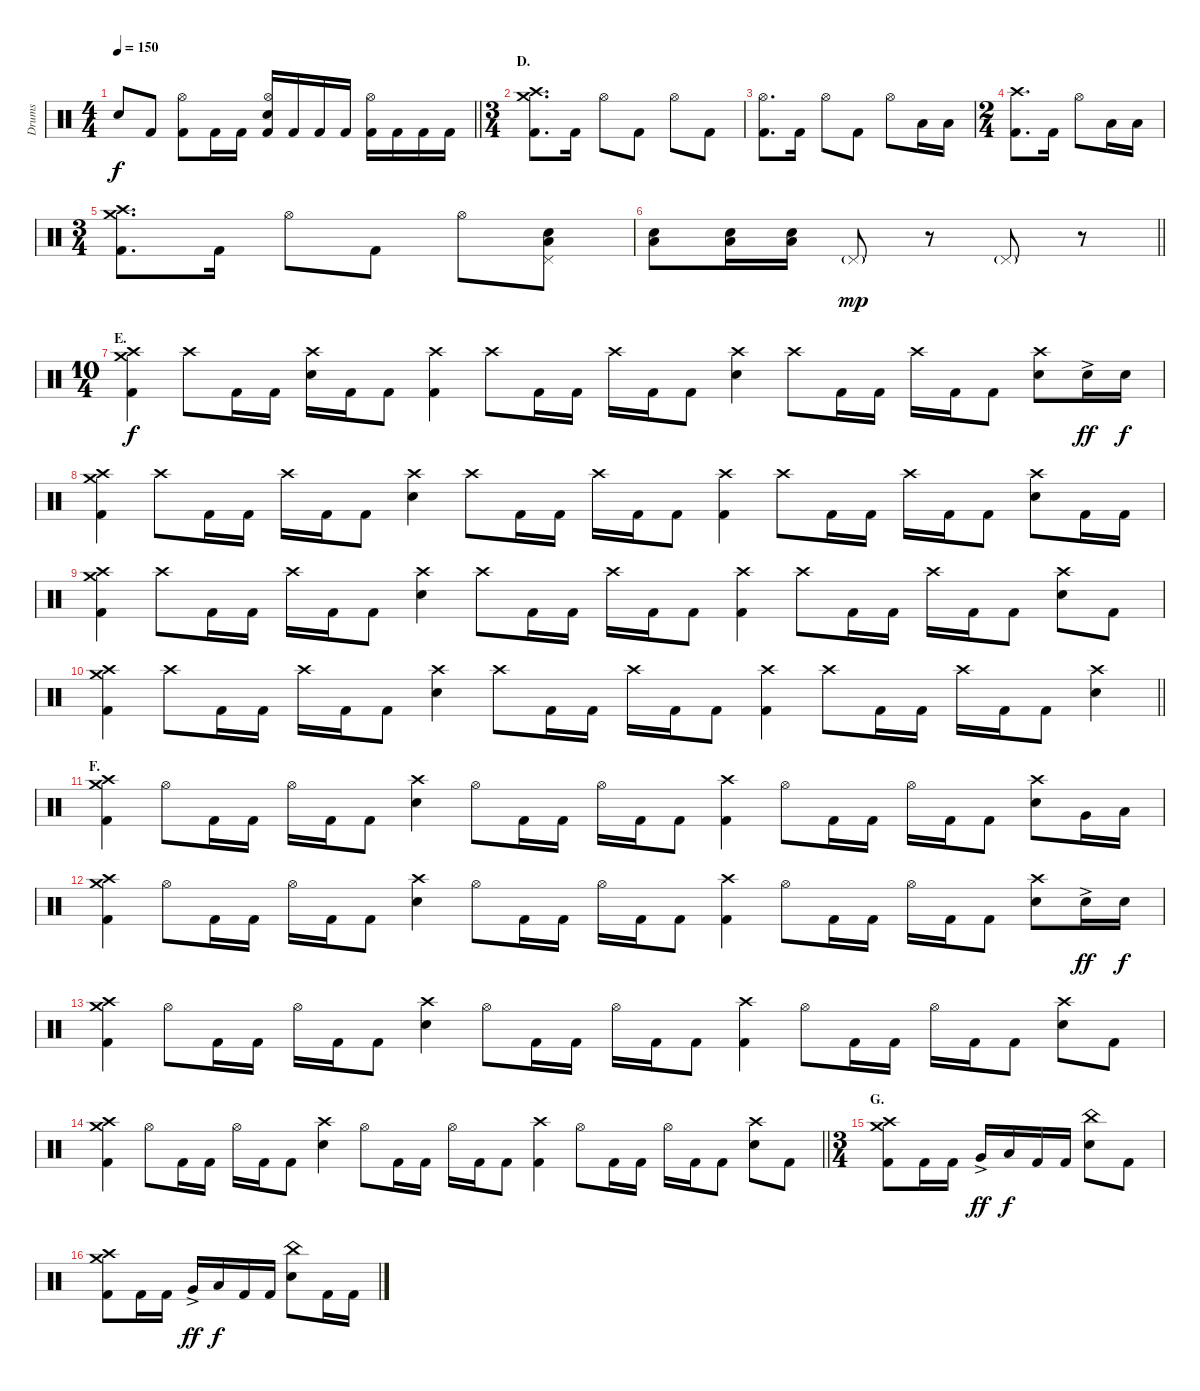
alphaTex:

\track ("Drums" "Drums") {instrument percussion}
\staff {score}
\articulation defaults
\ts (4 4)
\tempo 150
\clef neutral
\barLineRight lightlight
\ks c "Snare (hit)"{t}.8{dy f} "Kick (hit) 2".8
("Hi-Hat (open)" "Kick (hit) 2").8 "Kick (hit) 2".16 "Kick (hit) 2".16 ("Hi-Hat (open)" "Electric Snare (hit)" "Kick (hit) 2").16 "Kick (hit) 2".16 "Kick (hit) 2".16 "Kick (hit) 2".16 ("Hi-Hat (open)" "Kick (hit) 2").16 "Kick (hit) 2".16 "Kick (hit) 2".16 "Kick (hit) 2".16 |
\ts (3 4)
\section ("" "D.")
("Crash medium (hit)" "Crash high (hit)" "Kick (hit) 2").8{d} "Kick (hit) 2".16 "Hi-Hat (open)".8 "Kick (hit) 2".8 "Hi-Hat (open)".8 "Kick (hit) 2".8 |
("Hi-Hat (open)" "Kick (hit) 2").8{d} "Kick (hit) 2".16 "Hi-Hat (open)".8 "Kick (hit) 2".8 "Hi-Hat (open)".8 "Low Floor Tom (hit)".16 "Low Floor Tom (hit)".16 |
\ts (2 4)
("Crash high (hit)" "Kick (hit) 2").8{d} "Kick (hit) 2".16 "Hi-Hat (open)".8 "Low Floor Tom (hit)".16 "Low Floor Tom (hit)".16 |
\ts (3 4)
("Crash medium (hit)" "Crash high (hit)" "Kick (hit) 2").8{d} "Kick (hit) 2".16 "Hi-Hat (open)".8 "Kick (hit) 2".8 "Hi-Hat (open)".8 ("Pedal Hi-Hat (hit)" "Electric Snare (hit)" "Low Floor Tom (hit)").8 |
\barLineRight lightlight
("Electric Snare (hit)" "Low Floor Tom (hit)").8 ("Electric Snare (hit)" "Low Floor Tom (hit)").16 ("Electric Snare (hit)" "Low Floor Tom (hit)").16 "Pedal Hi-Hat (hit)"{g}.8{dy mp} r.8 "Pedal Hi-Hat (hit)"{g}.8 r.8 |
\ts (10 4)
\section ("" "E.")
("Crash medium (hit)" "Crash high (hit)" "Kick (hit) 2").4{dy f} "Crash high (hit)".8 "Kick (hit) 2".16 "Kick (hit) 2".16 ("Crash high (hit)" "Electric Snare (hit)").16 "Kick (hit) 2".16 "Kick (hit) 2".8 ("Crash high (hit)" "Kick (hit) 2").4 "Crash high (hit)".8 "Kick (hit) 2".16 "Kick (hit) 2".16 "Crash high (hit)".16 "Kick (hit) 2".16 "Kick (hit) 2".8 ("Crash high (hit)" "Electric Snare (hit)").4 "Crash high (hit)".8 "Kick (hit) 2".16 "Kick (hit) 2".16 "Crash high (hit)".16 "Kick (hit) 2".16 "Kick (hit) 2".8 ("Crash high (hit)" "Electric Snare (hit)").8 "Electric Snare (hit)"{ac}.16{dy ff} "Electric Snare (hit)".16{dy f} |
("Crash medium (hit)" "Crash high (hit)" "Kick (hit) 2").4 "Crash high (hit)".8 "Kick (hit) 2".16 "Kick (hit) 2".16 "Crash high (hit)".16 "Kick (hit) 2".16 "Kick (hit) 2".8 ("Crash high (hit)" "Electric Snare (hit)").4 "Crash high (hit)".8 "Kick (hit) 2".16 "Kick (hit) 2".16 "Crash high (hit)".16 "Kick (hit) 2".16 "Kick (hit) 2".8 ("Crash high (hit)" "Kick (hit) 2").4 "Crash high (hit)".8 "Kick (hit) 2".16 "Kick (hit) 2".16 "Crash high (hit)".16 "Kick (hit) 2".16 "Kick (hit) 2".8 ("Crash high (hit)" "Electric Snare (hit)").8 "Kick (hit) 2".16 "Kick (hit) 2".16 |
("Crash medium (hit)" "Crash high (hit)" "Kick (hit) 2").4 "Crash high (hit)".8 "Kick (hit) 2".16 "Kick (hit) 2".16 "Crash high (hit)".16 "Kick (hit) 2".16 "Kick (hit) 2".8 ("Crash high (hit)" "Electric Snare (hit)").4 "Crash high (hit)".8 "Kick (hit) 2".16 "Kick (hit) 2".16 "Crash high (hit)".16 "Kick (hit) 2".16 "Kick (hit) 2".8 ("Crash high (hit)" "Kick (hit) 2").4 "Crash high (hit)".8 "Kick (hit) 2".16 "Kick (hit) 2".16 "Crash high (hit)".16 "Kick (hit) 2".16 "Kick (hit) 2".8 ("Crash high (hit)" "Electric Snare (hit)").8 "Kick (hit) 2".8 |
\barLineRight lightlight
("Crash medium (hit)" "Crash high (hit)" "Kick (hit) 2").4 "Crash high (hit)".8 "Kick (hit) 2".16 "Kick (hit) 2".16 "Crash high (hit)".16 "Kick (hit) 2".16 "Kick (hit) 2".8 ("Crash high (hit)" "Electric Snare (hit)").4 "Crash high (hit)".8 "Kick (hit) 2".16 "Kick (hit) 2".16 "Crash high (hit)".16 "Kick (hit) 2".16 "Kick (hit) 2".8 ("Crash high (hit)" "Kick (hit) 2").4 "Crash high (hit)".8 "Kick (hit) 2".16 "Kick (hit) 2".16 "Crash high (hit)".16 "Kick (hit) 2".16 "Kick (hit) 2".8 ("Crash high (hit)" "Electric Snare (hit)").4 |
\section ("" "F.")
("Crash medium (hit)" "Crash high (hit)" "Kick (hit) 2").4 "Hi-Hat (open)".8 "Kick (hit) 2".16 "Kick (hit) 2".16 "Hi-Hat (open)".16 "Kick (hit) 2".16 "Kick (hit) 2".8 ("Crash high (hit)" "Electric Snare (hit)").4 "Hi-Hat (open)".8 "Kick (hit) 2".16 "Kick (hit) 2".16 "Hi-Hat (open)".16 "Kick (hit) 2".16 "Kick (hit) 2".8 ("Crash high (hit)" "Kick (hit) 2").4 "Hi-Hat (open)".8 "Kick (hit) 2".16 "Kick (hit) 2".16 "Hi-Hat (open)".16 "Kick (hit) 2".16 "Kick (hit) 2".8 ("Crash high (hit)" "Electric Snare (hit)").8 "Very Low Tom (hit)".16 "Low Floor Tom (hit)".16 |
("Crash medium (hit)" "Crash high (hit)" "Kick (hit) 2").4 "Hi-Hat (open)".8 "Kick (hit) 2".16 "Kick (hit) 2".16 "Hi-Hat (open)".16 "Kick (hit) 2".16 "Kick (hit) 2".8 ("Crash high (hit)" "Electric Snare (hit)").4 "Hi-Hat (open)".8 "Kick (hit) 2".16 "Kick (hit) 2".16 "Hi-Hat (open)".16 "Kick (hit) 2".16 "Kick (hit) 2".8 ("Crash high (hit)" "Kick (hit) 2").4 "Hi-Hat (open)".8 "Kick (hit) 2".16 "Kick (hit) 2".16 "Hi-Hat (open)".16 "Kick (hit) 2".16 "Kick (hit) 2".8 ("Crash high (hit)" "Electric Snare (hit)").8 "Electric Snare (hit)"{ac}.16{dy ff} "Electric Snare (hit)".16{dy f} |
("Crash medium (hit)" "Crash high (hit)" "Kick (hit) 2").4 "Hi-Hat (open)".8 "Kick (hit) 2".16 "Kick (hit) 2".16 "Hi-Hat (open)".16 "Kick (hit) 2".16 "Kick (hit) 2".8 ("Crash high (hit)" "Electric Snare (hit)").4 "Hi-Hat (open)".8 "Kick (hit) 2".16 "Kick (hit) 2".16 "Hi-Hat (open)".16 "Kick (hit) 2".16 "Kick (hit) 2".8 ("Crash high (hit)" "Kick (hit) 2").4 "Hi-Hat (open)".8 "Kick (hit) 2".16 "Kick (hit) 2".16 "Hi-Hat (open)".16 "Kick (hit) 2".16 "Kick (hit) 2".8 ("Crash high (hit)" "Electric Snare (hit)").8 "Kick (hit) 2".8 |
\barLineRight lightlight
("Crash medium (hit)" "Crash high (hit)" "Kick (hit) 2").4 "Hi-Hat (open)".8 "Kick (hit) 2".16 "Kick (hit) 2".16 "Hi-Hat (open)".16 "Kick (hit) 2".16 "Kick (hit) 2".8 ("Crash high (hit)" "Electric Snare (hit)").4 "Hi-Hat (open)".8 "Kick (hit) 2".16 "Kick (hit) 2".16 "Hi-Hat (open)".16 "Kick (hit) 2".16 "Kick (hit) 2".8 ("Crash high (hit)" "Kick (hit) 2").4 "Hi-Hat (open)".8 "Kick (hit) 2".16 "Kick (hit) 2".16 "Hi-Hat (open)".16 "Kick (hit) 2".16 "Kick (hit) 2".8 ("Crash high (hit)" "Electric Snare (hit)").8 "Kick (hit) 2".8 |
\ts (3 4)
\section ("" "G.")
("Crash medium (hit)" "Crash high (hit)" "Kick (hit) 2").8 "Kick (hit) 2".16 "Kick (hit) 2".16 "Very Low Tom (hit)"{ac}.16{dy ff} "Low Floor Tom (hit)".16{dy f} "Kick (hit) 2".16 "Kick (hit) 2".16 ("China (hit)" "Electric Snare (hit)").8 "Kick (hit) 2".8 |
("Crash medium (hit)" "Crash high (hit)" "Kick (hit) 2").8 "Kick (hit) 2".16 "Kick (hit) 2".16 "Very Low Tom (hit)"{ac}.16{dy ff} "Low Floor Tom (hit)".16{dy f} "Kick (hit) 2".16 "Kick (hit) 2".16 ("China (hit)" "Electric Snare (hit)").8 "Kick (hit) 2".16 "Kick (hit) 2".16
